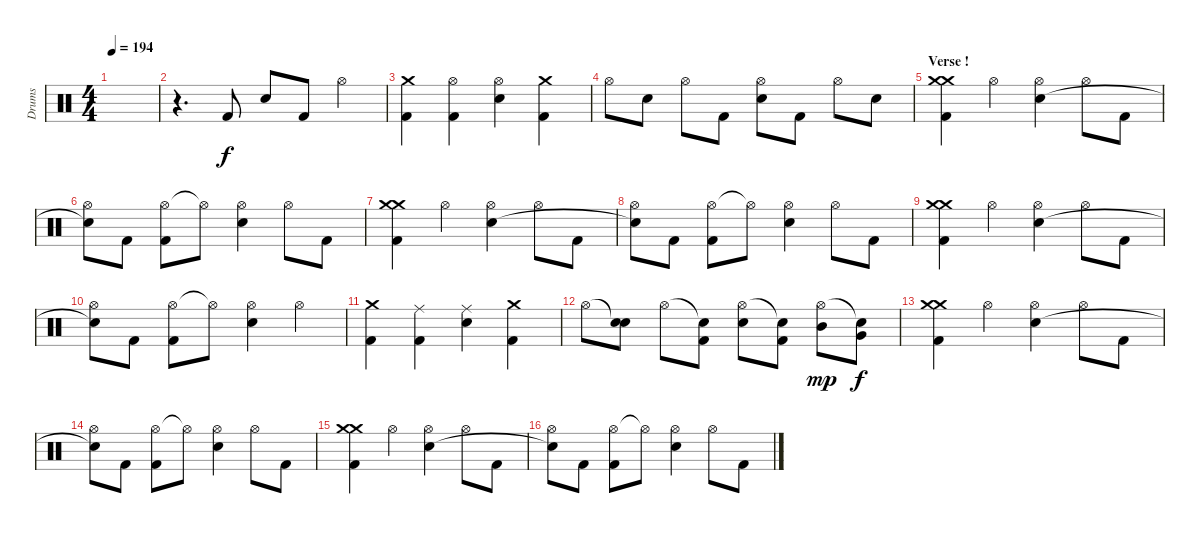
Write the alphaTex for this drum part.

\track ("Drums" "Drums") {instrument percussion}
\staff {score}
\articulation defaults
\ts (4 4)
\tempo 194
\clef neutral
\ks c
|
r.4{d} "Kick (hit) 2".8 "Snare (hit) 2".8 "Kick (hit) 2".8 "Hi-Hat (open)".4 |
("Crash medium (hit)" "Kick (hit) 2").4 ("Hi-Hat (open)" "Kick (hit) 2").4 ("Hi-Hat (open)" "Snare (hit) 2").4 ("Crash medium (hit)" "Kick (hit) 2").4 |
"Hi-Hat (open)".8 "Snare (hit) 2".8 "Hi-Hat (open)".8 "Kick (hit) 2".8 ("Hi-Hat (open)" "Snare (hit) 2").8 "Kick (hit) 2".8 "Hi-Hat (open)".8 "Snare (hit) 2".8 |
\section ("" "Verse !")
("Crash medium (hit)" "Crash medium (hit)" "Kick (hit) 2").4 "Hi-Hat (open)".4 ("Hi-Hat (open)" "Snare (hit) 2").4 "Hi-Hat (open)".8 "Kick (hit) 2".8 |
("Hi-Hat (open)" "Snare (hit)"{t}).8 "Kick (hit) 2".8 ("Hi-Hat (open)" "Kick (hit) 2").8 "Hi-Hat (open)"{t}.8 ("Hi-Hat (open)" "Snare (hit) 2").4 "Hi-Hat (open)".8 "Kick (hit) 2".8 |
("Crash medium (hit)" "Crash medium (hit)" "Kick (hit) 2").4 "Hi-Hat (open)".4 ("Hi-Hat (open)" "Snare (hit) 2").4 "Hi-Hat (open)".8 "Kick (hit) 2".8 |
("Hi-Hat (open)" "Snare (hit)"{t}).8 "Kick (hit) 2".8 ("Hi-Hat (open)" "Kick (hit) 2").8 "Hi-Hat (open)"{t}.8 ("Hi-Hat (open)" "Snare (hit) 2").4 "Hi-Hat (open)".8 "Kick (hit) 2".8 |
("Crash medium (hit)" "Crash medium (hit)" "Kick (hit) 2").4 "Hi-Hat (open)".4 ("Hi-Hat (open)" "Snare (hit) 2").4 "Hi-Hat (open)".8 "Kick (hit) 2".8 |
("Hi-Hat (open)" "Snare (hit)"{t}).8 "Kick (hit) 2".8 ("Hi-Hat (open)" "Kick (hit) 2").8 "Hi-Hat (open)"{t}.8 ("Hi-Hat (open)" "Snare (hit) 2").4 "Hi-Hat (open)".4 |
("Crash medium (hit)" "Kick (hit) 2").4 ("Ride (middle)" "Kick (hit) 2").4 ("Ride (middle)" "Snare (hit) 2").4 ("Crash medium (hit)" "Kick (hit) 2").4 |
"Hi-Hat (open)".8 ("Snare (hit)"{t} "Snare (hit) 2").8 "Hi-Hat (open)".8 ("Snare (hit)"{t} "Kick (hit) 2").8 ("Hi-Hat (open)" "Snare (hit) 2").8 ("Snare (hit)"{t} "Kick (hit) 2").8 ("Hi-Hat (open)" "Mid Tom (hit)").8{dy mp} ("Snare (hit)"{t} "Very Low Tom (hit)").8{dy f} |
("Crash medium (hit)" "Crash medium (hit)" "Kick (hit) 2").4 "Hi-Hat (open)".4 ("Hi-Hat (open)" "Snare (hit) 2").4 "Hi-Hat (open)".8 "Kick (hit) 2".8 |
("Hi-Hat (open)" "Snare (hit)"{t}).8 "Kick (hit) 2".8 ("Hi-Hat (open)" "Kick (hit) 2").8 "Hi-Hat (open)"{t}.8 ("Hi-Hat (open)" "Snare (hit) 2").4 "Hi-Hat (open)".8 "Kick (hit) 2".8 |
("Crash medium (hit)" "Crash medium (hit)" "Kick (hit) 2").4 "Hi-Hat (open)".4 ("Hi-Hat (open)" "Snare (hit) 2").4 "Hi-Hat (open)".8 "Kick (hit) 2".8 |
("Hi-Hat (open)" "Snare (hit)"{t}).8 "Kick (hit) 2".8 ("Hi-Hat (open)" "Kick (hit) 2").8 "Hi-Hat (open)"{t}.8 ("Hi-Hat (open)" "Snare (hit) 2").4 "Hi-Hat (open)".8 "Kick (hit) 2".8
